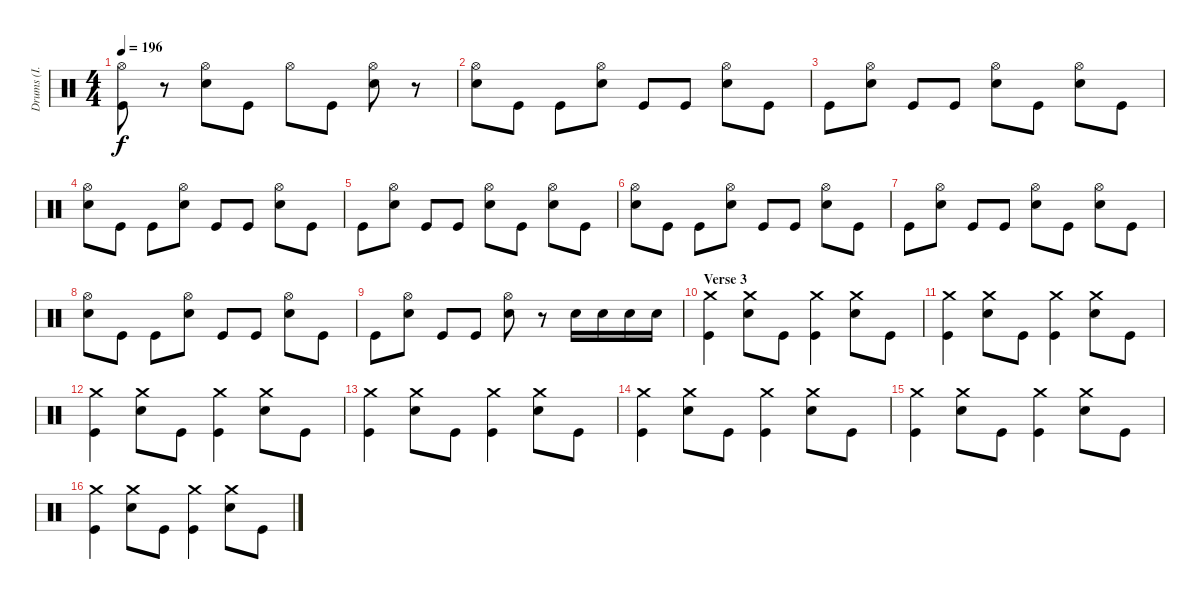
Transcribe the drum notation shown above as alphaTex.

\track ("Drums (I. Paice)" "Drums (I. ") {instrument percussion}
\staff {score}
\articulation defaults
\ts (4 4)
\tempo 196
\clef neutral
\ks c
("Hi-Hat (open)" "Kick (hit)").8{dy f} r.8 ("Hi-Hat (open)" "Snare (hit) 2").8 "Kick (hit)".8 "Hi-Hat (open)".8 "Kick (hit)".8 ("Hi-Hat (open)" "Snare (hit) 2").8 r.8 |
("Hi-Hat (open)" "Electric Snare (hit)").8 "Kick (hit)".8 "Kick (hit)".8 ("Hi-Hat (open)" "Electric Snare (hit)").8 "Kick (hit)".8 "Kick (hit)".8 ("Hi-Hat (open)" "Electric Snare (hit)").8 "Kick (hit)".8 |
"Kick (hit)".8 ("Hi-Hat (open)" "Electric Snare (hit)").8 "Kick (hit)".8 "Kick (hit)".8 ("Hi-Hat (open)" "Electric Snare (hit)").8 "Kick (hit)".8 ("Hi-Hat (open)" "Electric Snare (hit)").8 "Kick (hit)".8 |
("Hi-Hat (open)" "Electric Snare (hit)").8 "Kick (hit)".8 "Kick (hit)".8 ("Hi-Hat (open)" "Electric Snare (hit)").8 "Kick (hit)".8 "Kick (hit)".8 ("Hi-Hat (open)" "Electric Snare (hit)").8 "Kick (hit)".8 |
"Kick (hit)".8 ("Hi-Hat (open)" "Electric Snare (hit)").8 "Kick (hit)".8 "Kick (hit)".8 ("Hi-Hat (open)" "Electric Snare (hit)").8 "Kick (hit)".8 ("Hi-Hat (open)" "Electric Snare (hit)").8 "Kick (hit)".8 |
("Hi-Hat (open)" "Electric Snare (hit)").8 "Kick (hit)".8 "Kick (hit)".8 ("Hi-Hat (open)" "Electric Snare (hit)").8 "Kick (hit)".8 "Kick (hit)".8 ("Hi-Hat (open)" "Electric Snare (hit)").8 "Kick (hit)".8 |
"Kick (hit)".8 ("Hi-Hat (open)" "Electric Snare (hit)").8 "Kick (hit)".8 "Kick (hit)".8 ("Hi-Hat (open)" "Electric Snare (hit)").8 "Kick (hit)".8 ("Hi-Hat (open)" "Electric Snare (hit)").8 "Kick (hit)".8 |
("Hi-Hat (open)" "Electric Snare (hit)").8 "Kick (hit)".8 "Kick (hit)".8 ("Hi-Hat (open)" "Electric Snare (hit)").8 "Kick (hit)".8 "Kick (hit)".8 ("Hi-Hat (open)" "Electric Snare (hit)").8 "Kick (hit)".8 |
"Kick (hit)".8 ("Hi-Hat (open)" "Electric Snare (hit)").8 "Kick (hit)".8 "Kick (hit)".8 ("Hi-Hat (open)" "Electric Snare (hit)").8 r.8 "Electric Snare (hit)".16 "Electric Snare (hit)".16 "Electric Snare (hit)".16 "Electric Snare (hit)".16 |
\section ("" "Verse 3")
("Crash medium (hit)" "Kick (hit)").4 ("Crash medium (hit)" "Electric Snare (hit)").8 "Kick (hit)".8 ("Crash medium (hit)" "Kick (hit)").4 ("Crash medium (hit)" "Electric Snare (hit)").8 "Kick (hit)".8 |
("Crash medium (hit)" "Kick (hit)").4 ("Crash medium (hit)" "Electric Snare (hit)").8 "Kick (hit)".8 ("Crash medium (hit)" "Kick (hit)").4 ("Crash medium (hit)" "Electric Snare (hit)").8 "Kick (hit)".8 |
("Crash medium (hit)" "Kick (hit)").4 ("Crash medium (hit)" "Electric Snare (hit)").8 "Kick (hit)".8 ("Crash medium (hit)" "Kick (hit)").4 ("Crash medium (hit)" "Electric Snare (hit)").8 "Kick (hit)".8 |
("Crash medium (hit)" "Kick (hit)").4 ("Crash medium (hit)" "Electric Snare (hit)").8 "Kick (hit)".8 ("Crash medium (hit)" "Kick (hit)").4 ("Crash medium (hit)" "Electric Snare (hit)").8 "Kick (hit)".8 |
("Crash medium (hit)" "Kick (hit)").4 ("Crash medium (hit)" "Electric Snare (hit)").8 "Kick (hit)".8 ("Crash medium (hit)" "Kick (hit)").4 ("Crash medium (hit)" "Electric Snare (hit)").8 "Kick (hit)".8 |
("Crash medium (hit)" "Kick (hit)").4 ("Crash medium (hit)" "Electric Snare (hit)").8 "Kick (hit)".8 ("Crash medium (hit)" "Kick (hit)").4 ("Crash medium (hit)" "Electric Snare (hit)").8 "Kick (hit)".8 |
("Crash medium (hit)" "Kick (hit)").4 ("Crash medium (hit)" "Electric Snare (hit)").8 "Kick (hit)".8 ("Crash medium (hit)" "Kick (hit)").4 ("Crash medium (hit)" "Electric Snare (hit)").8 "Kick (hit)".8
